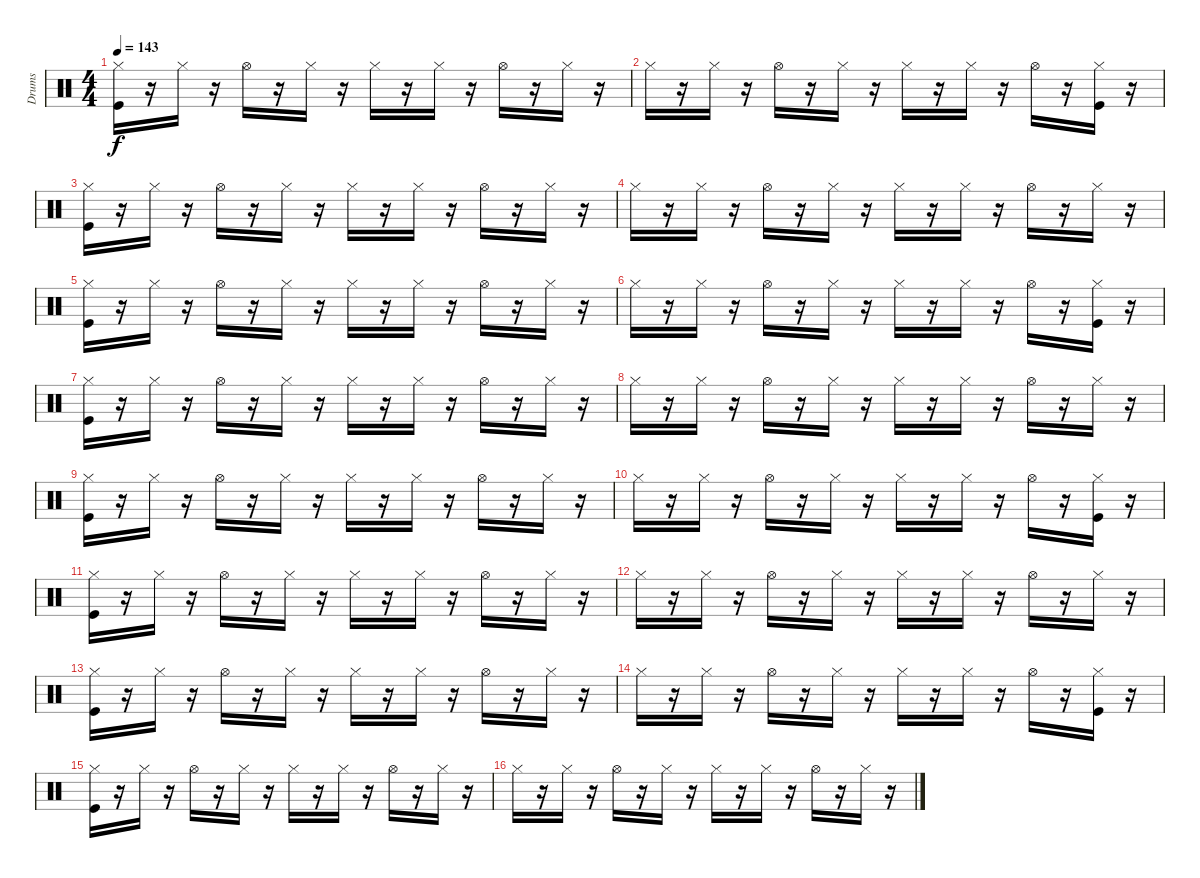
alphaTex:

\track ("Drums" "Drums") {instrument percussion}
\staff {score}
\articulation defaults
\ts (4 4)
\tempo 143
\clef neutral
\ks c
("Hi-Hat (closed)" "Kick (hit)").16{dy f} r.16 "Hi-Hat (closed)".16 r.16 "Hi-Hat (open)".16 r.16 "Hi-Hat (closed)".16 r.16 "Hi-Hat (closed)".16 r.16 "Hi-Hat (closed)".16 r.16 "Hi-Hat (open)".16 r.16 "Hi-Hat (closed)".16 r.16 |
"Hi-Hat (closed)".16 r.16 "Hi-Hat (closed)".16 r.16 "Hi-Hat (open)".16 r.16 "Hi-Hat (closed)".16 r.16 "Hi-Hat (closed)".16 r.16 "Hi-Hat (closed)".16 r.16 "Hi-Hat (open)".16 r.16 ("Hi-Hat (closed)" "Kick (hit)").16 r.16 |
("Hi-Hat (closed)" "Kick (hit)").16 r.16 "Hi-Hat (closed)".16 r.16 "Hi-Hat (open)".16 r.16 "Hi-Hat (closed)".16 r.16 "Hi-Hat (closed)".16 r.16 "Hi-Hat (closed)".16 r.16 "Hi-Hat (open)".16 r.16 "Hi-Hat (closed)".16 r.16 |
"Hi-Hat (closed)".16 r.16 "Hi-Hat (closed)".16 r.16 "Hi-Hat (open)".16 r.16 "Hi-Hat (closed)".16 r.16 "Hi-Hat (closed)".16 r.16 "Hi-Hat (closed)".16 r.16 "Hi-Hat (open)".16 r.16 "Hi-Hat (closed)".16 r.16 |
("Hi-Hat (closed)" "Kick (hit)").16 r.16 "Hi-Hat (closed)".16 r.16 "Hi-Hat (open)".16 r.16 "Hi-Hat (closed)".16 r.16 "Hi-Hat (closed)".16 r.16 "Hi-Hat (closed)".16 r.16 "Hi-Hat (open)".16 r.16 "Hi-Hat (closed)".16 r.16 |
"Hi-Hat (closed)".16 r.16 "Hi-Hat (closed)".16 r.16 "Hi-Hat (open)".16 r.16 "Hi-Hat (closed)".16 r.16 "Hi-Hat (closed)".16 r.16 "Hi-Hat (closed)".16 r.16 "Hi-Hat (open)".16 r.16 ("Hi-Hat (closed)" "Kick (hit)").16 r.16 |
("Hi-Hat (closed)" "Kick (hit)").16 r.16 "Hi-Hat (closed)".16 r.16 "Hi-Hat (open)".16 r.16 "Hi-Hat (closed)".16 r.16 "Hi-Hat (closed)".16 r.16 "Hi-Hat (closed)".16 r.16 "Hi-Hat (open)".16 r.16 "Hi-Hat (closed)".16 r.16 |
"Hi-Hat (closed)".16 r.16 "Hi-Hat (closed)".16 r.16 "Hi-Hat (open)".16 r.16 "Hi-Hat (closed)".16 r.16 "Hi-Hat (closed)".16 r.16 "Hi-Hat (closed)".16 r.16 "Hi-Hat (open)".16 r.16 "Hi-Hat (closed)".16 r.16 |
("Hi-Hat (closed)" "Kick (hit)").16 r.16 "Hi-Hat (closed)".16 r.16 "Hi-Hat (open)".16 r.16 "Hi-Hat (closed)".16 r.16 "Hi-Hat (closed)".16 r.16 "Hi-Hat (closed)".16 r.16 "Hi-Hat (open)".16 r.16 "Hi-Hat (closed)".16 r.16 |
"Hi-Hat (closed)".16 r.16 "Hi-Hat (closed)".16 r.16 "Hi-Hat (open)".16 r.16 "Hi-Hat (closed)".16 r.16 "Hi-Hat (closed)".16 r.16 "Hi-Hat (closed)".16 r.16 "Hi-Hat (open)".16 r.16 ("Hi-Hat (closed)" "Kick (hit)").16 r.16 |
("Hi-Hat (closed)" "Kick (hit)").16 r.16 "Hi-Hat (closed)".16 r.16 "Hi-Hat (open)".16 r.16 "Hi-Hat (closed)".16 r.16 "Hi-Hat (closed)".16 r.16 "Hi-Hat (closed)".16 r.16 "Hi-Hat (open)".16 r.16 "Hi-Hat (closed)".16 r.16 |
"Hi-Hat (closed)".16 r.16 "Hi-Hat (closed)".16 r.16 "Hi-Hat (open)".16 r.16 "Hi-Hat (closed)".16 r.16 "Hi-Hat (closed)".16 r.16 "Hi-Hat (closed)".16 r.16 "Hi-Hat (open)".16 r.16 "Hi-Hat (closed)".16 r.16 |
("Hi-Hat (closed)" "Kick (hit)").16 r.16 "Hi-Hat (closed)".16 r.16 "Hi-Hat (open)".16 r.16 "Hi-Hat (closed)".16 r.16 "Hi-Hat (closed)".16 r.16 "Hi-Hat (closed)".16 r.16 "Hi-Hat (open)".16 r.16 "Hi-Hat (closed)".16 r.16 |
"Hi-Hat (closed)".16 r.16 "Hi-Hat (closed)".16 r.16 "Hi-Hat (open)".16 r.16 "Hi-Hat (closed)".16 r.16 "Hi-Hat (closed)".16 r.16 "Hi-Hat (closed)".16 r.16 "Hi-Hat (open)".16 r.16 ("Hi-Hat (closed)" "Kick (hit)").16 r.16 |
("Hi-Hat (closed)" "Kick (hit)").16 r.16 "Hi-Hat (closed)".16 r.16 "Hi-Hat (open)".16 r.16 "Hi-Hat (closed)".16 r.16 "Hi-Hat (closed)".16 r.16 "Hi-Hat (closed)".16 r.16 "Hi-Hat (open)".16 r.16 "Hi-Hat (closed)".16 r.16 |
"Hi-Hat (closed)".16 r.16 "Hi-Hat (closed)".16 r.16 "Hi-Hat (open)".16 r.16 "Hi-Hat (closed)".16 r.16 "Hi-Hat (closed)".16 r.16 "Hi-Hat (closed)".16 r.16 "Hi-Hat (open)".16 r.16 "Hi-Hat (closed)".16 r.16
